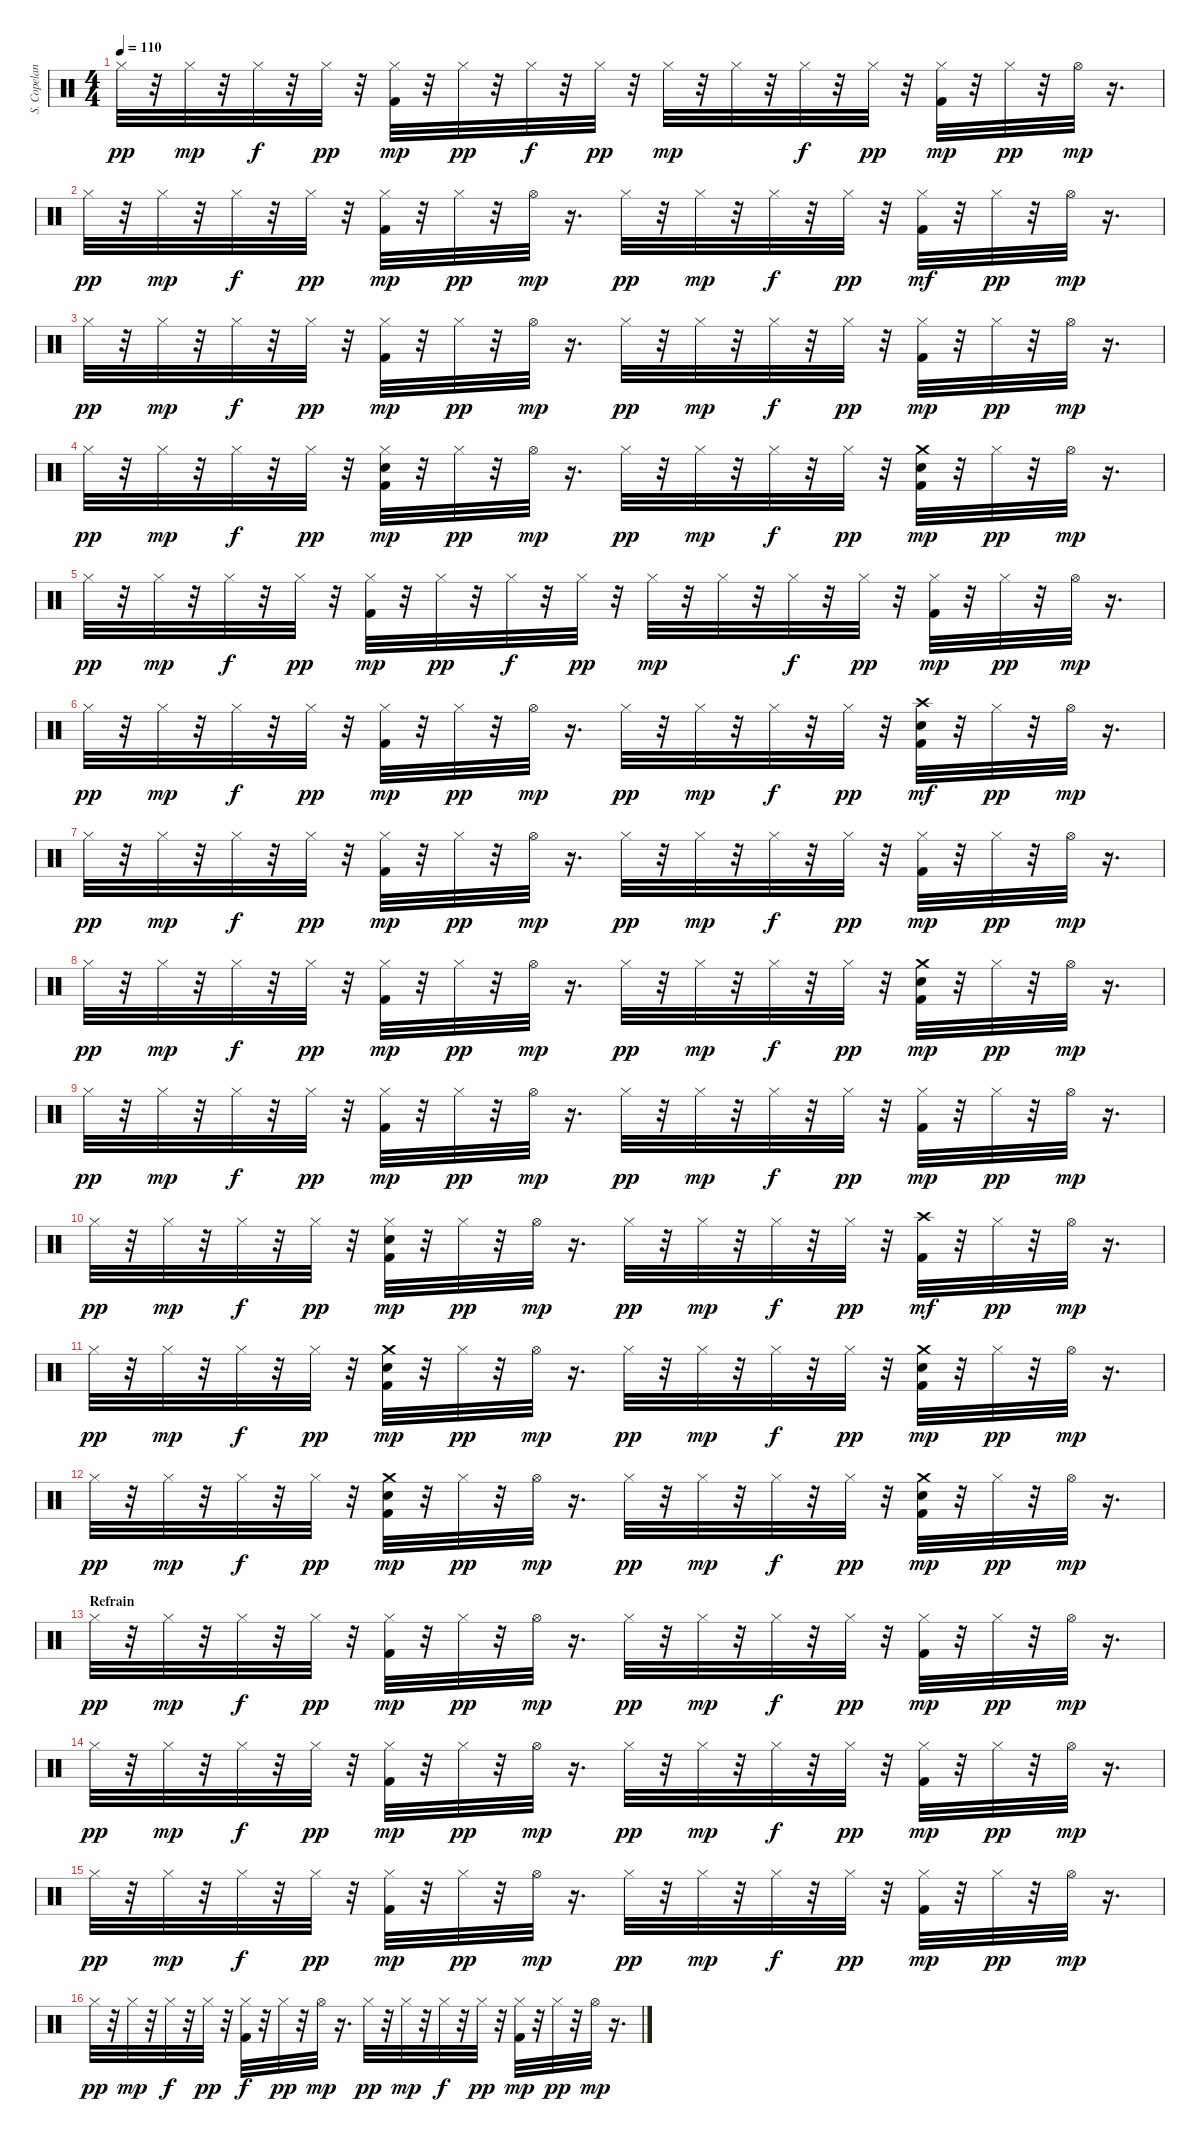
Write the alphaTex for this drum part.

\track ("S. Copeland" "S. Copelan") {instrument percussion}
\staff {score}
\articulation defaults
\ts (4 4)
\tempo 110
\clef neutral
\ks c "Hi-Hat (closed)".32{dy pp}
r.32 "Hi-Hat (closed)".32{dy mp} r.32 "Hi-Hat (closed)".32{dy f} r.32 "Hi-Hat (closed)".32{dy pp} r.32 ("Kick (hit) 2" "Hi-Hat (closed)").32{dy mp} r.32 "Hi-Hat (closed)".32{dy pp} r.32 "Hi-Hat (closed)".32{dy f} r.32 "Hi-Hat (closed)".32{dy pp} r.32 "Hi-Hat (closed)".32{dy mp} r.32 "Hi-Hat (closed)".32 r.32 "Hi-Hat (closed)".32{dy f} r.32 "Hi-Hat (closed)".32{dy pp} r.32 ("Kick (hit) 2" "Hi-Hat (closed)").32{dy mp} r.32 "Hi-Hat (closed)".32{dy pp} r.32 "Hi-Hat (open)".32{dy mp} r.16{d} |
"Hi-Hat (closed)".32{dy pp} r.32 "Hi-Hat (closed)".32{dy mp} r.32 "Hi-Hat (closed)".32{dy f} r.32 "Hi-Hat (closed)".32{dy pp} r.32 ("Kick (hit) 2" "Hi-Hat (closed)").32{dy mp} r.32 "Hi-Hat (closed)".32{dy pp} r.32 "Hi-Hat (open)".32{dy mp} r.16{d} "Hi-Hat (closed)".32{dy pp} r.32 "Hi-Hat (closed)".32{dy mp} r.32 "Hi-Hat (closed)".32{dy f} r.32 "Hi-Hat (closed)".32{dy pp} r.32 ("Kick (hit) 2" "Hi-Hat (closed)").32{dy mf} r.32 "Hi-Hat (closed)".32{dy pp} r.32 "Hi-Hat (open)".32{dy mp} r.16{d} |
"Hi-Hat (closed)".32{dy pp} r.32 "Hi-Hat (closed)".32{dy mp} r.32 "Hi-Hat (closed)".32{dy f} r.32 "Hi-Hat (closed)".32{dy pp} r.32 ("Kick (hit) 2" "Hi-Hat (closed)").32{dy mp} r.32 "Hi-Hat (closed)".32{dy pp} r.32 "Hi-Hat (open)".32{dy mp} r.16{d} "Hi-Hat (closed)".32{dy pp} r.32 "Hi-Hat (closed)".32{dy mp} r.32 "Hi-Hat (closed)".32{dy f} r.32 "Hi-Hat (closed)".32{dy pp} r.32 ("Kick (hit) 2" "Hi-Hat (closed)").32{dy mp} r.32 "Hi-Hat (closed)".32{dy pp} r.32 "Hi-Hat (open)".32{dy mp} r.16{d} |
"Hi-Hat (closed)".32{dy pp} r.32 "Hi-Hat (closed)".32{dy mp} r.32 "Hi-Hat (closed)".32{dy f} r.32 "Hi-Hat (closed)".32{dy pp} r.32 ("Kick (hit) 2" "Electric Snare (hit)" "Hi-Hat (closed)").32{dy mp} r.32 "Hi-Hat (closed)".32{dy pp} r.32 "Hi-Hat (open)".32{dy mp} r.16{d} "Hi-Hat (closed)".32{dy pp} r.32 "Hi-Hat (closed)".32{dy mp} r.32 "Hi-Hat (closed)".32{dy f} r.32 "Hi-Hat (closed)".32{dy pp} r.32 ("Kick (hit) 2" "Electric Snare (hit)" "Crash medium (hit)").32{dy mp} r.32 "Hi-Hat (closed)".32{dy pp} r.32 "Hi-Hat (open)".32{dy mp} r.16{d} |
"Hi-Hat (closed)".32{dy pp} r.32 "Hi-Hat (closed)".32{dy mp} r.32 "Hi-Hat (closed)".32{dy f} r.32 "Hi-Hat (closed)".32{dy pp} r.32 ("Kick (hit) 2" "Hi-Hat (closed)").32{dy mp} r.32 "Hi-Hat (closed)".32{dy pp} r.32 "Hi-Hat (closed)".32{dy f} r.32 "Hi-Hat (closed)".32{dy pp} r.32 "Hi-Hat (closed)".32{dy mp} r.32 "Hi-Hat (closed)".32 r.32 "Hi-Hat (closed)".32{dy f} r.32 "Hi-Hat (closed)".32{dy pp} r.32 ("Kick (hit) 2" "Hi-Hat (closed)").32{dy mp} r.32 "Hi-Hat (closed)".32{dy pp} r.32 "Hi-Hat (open)".32{dy mp} r.16{d} |
"Hi-Hat (closed)".32{dy pp} r.32 "Hi-Hat (closed)".32{dy mp} r.32 "Hi-Hat (closed)".32{dy f} r.32 "Hi-Hat (closed)".32{dy pp} r.32 ("Kick (hit) 2" "Hi-Hat (closed)").32{dy mp} r.32 "Hi-Hat (closed)".32{dy pp} r.32 "Hi-Hat (open)".32{dy mp} r.16{d} "Hi-Hat (closed)".32{dy pp} r.32 "Hi-Hat (closed)".32{dy mp} r.32 "Hi-Hat (closed)".32{dy f} r.32 "Hi-Hat (closed)".32{dy pp} r.32 ("Kick (hit) 2" "Electric Snare (hit)" "Crash high (hit)").32{dy mf} r.32 "Hi-Hat (closed)".32{dy pp} r.32 "Hi-Hat (open)".32{dy mp} r.16{d} |
"Hi-Hat (closed)".32{dy pp} r.32 "Hi-Hat (closed)".32{dy mp} r.32 "Hi-Hat (closed)".32{dy f} r.32 "Hi-Hat (closed)".32{dy pp} r.32 ("Kick (hit) 2" "Hi-Hat (closed)").32{dy mp} r.32 "Hi-Hat (closed)".32{dy pp} r.32 "Hi-Hat (open)".32{dy mp} r.16{d} "Hi-Hat (closed)".32{dy pp} r.32 "Hi-Hat (closed)".32{dy mp} r.32 "Hi-Hat (closed)".32{dy f} r.32 "Hi-Hat (closed)".32{dy pp} r.32 ("Kick (hit) 2" "Hi-Hat (closed)").32{dy mp} r.32 "Hi-Hat (closed)".32{dy pp} r.32 "Hi-Hat (open)".32{dy mp} r.16{d} |
"Hi-Hat (closed)".32{dy pp} r.32 "Hi-Hat (closed)".32{dy mp} r.32 "Hi-Hat (closed)".32{dy f} r.32 "Hi-Hat (closed)".32{dy pp} r.32 ("Kick (hit) 2" "Hi-Hat (closed)").32{dy mp} r.32 "Hi-Hat (closed)".32{dy pp} r.32 "Hi-Hat (open)".32{dy mp} r.16{d} "Hi-Hat (closed)".32{dy pp} r.32 "Hi-Hat (closed)".32{dy mp} r.32 "Hi-Hat (closed)".32{dy f} r.32 "Hi-Hat (closed)".32{dy pp} r.32 ("Kick (hit) 2" "Electric Snare (hit)" "Crash medium (hit)").32{dy mp} r.32 "Hi-Hat (closed)".32{dy pp} r.32 "Hi-Hat (open)".32{dy mp} r.16{d} |
"Hi-Hat (closed)".32{dy pp} r.32 "Hi-Hat (closed)".32{dy mp} r.32 "Hi-Hat (closed)".32{dy f} r.32 "Hi-Hat (closed)".32{dy pp} r.32 ("Kick (hit) 2" "Hi-Hat (closed)").32{dy mp} r.32 "Hi-Hat (closed)".32{dy pp} r.32 "Hi-Hat (open)".32{dy mp} r.16{d} "Hi-Hat (closed)".32{dy pp} r.32 "Hi-Hat (closed)".32{dy mp} r.32 "Hi-Hat (closed)".32{dy f} r.32 "Hi-Hat (closed)".32{dy pp} r.32 ("Kick (hit) 2" "Hi-Hat (closed)").32{dy mp} r.32 "Hi-Hat (closed)".32{dy pp} r.32 "Hi-Hat (open)".32{dy mp} r.16{d} |
"Hi-Hat (closed)".32{dy pp} r.32 "Hi-Hat (closed)".32{dy mp} r.32 "Hi-Hat (closed)".32{dy f} r.32 "Hi-Hat (closed)".32{dy pp} r.32 ("Kick (hit) 2" "Electric Snare (hit)" "Hi-Hat (closed)").32{dy mp} r.32 "Hi-Hat (closed)".32{dy pp} r.32 "Hi-Hat (open)".32{dy mp} r.16{d} "Hi-Hat (closed)".32{dy pp} r.32 "Hi-Hat (closed)".32{dy mp} r.32 "Hi-Hat (closed)".32{dy f} r.32 "Hi-Hat (closed)".32{dy pp} r.32 ("Kick (hit) 2" "Crash high (hit)").32{dy mf} r.32 "Hi-Hat (closed)".32{dy pp} r.32 "Hi-Hat (open)".32{dy mp} r.16{d} |
"Hi-Hat (closed)".32{dy pp} r.32 "Hi-Hat (closed)".32{dy mp} r.32 "Hi-Hat (closed)".32{dy f} r.32 "Hi-Hat (closed)".32{dy pp} r.32 ("Kick (hit) 2" "Electric Snare (hit)" "Crash medium (hit)").32{dy mp} r.32 "Hi-Hat (closed)".32{dy pp} r.32 "Hi-Hat (open)".32{dy mp} r.16{d} "Hi-Hat (closed)".32{dy pp} r.32 "Hi-Hat (closed)".32{dy mp} r.32 "Hi-Hat (closed)".32{dy f} r.32 "Hi-Hat (closed)".32{dy pp} r.32 ("Kick (hit) 2" "Electric Snare (hit)" "Crash medium (hit)").32{dy mp} r.32 "Hi-Hat (closed)".32{dy pp} r.32 "Hi-Hat (open)".32{dy mp} r.16{d} |
"Hi-Hat (closed)".32{dy pp} r.32 "Hi-Hat (closed)".32{dy mp} r.32 "Hi-Hat (closed)".32{dy f} r.32 "Hi-Hat (closed)".32{dy pp} r.32 ("Kick (hit) 2" "Electric Snare (hit)" "Crash medium (hit)").32{dy mp} r.32 "Hi-Hat (closed)".32{dy pp} r.32 "Hi-Hat (open)".32{dy mp} r.16{d} "Hi-Hat (closed)".32{dy pp} r.32 "Hi-Hat (closed)".32{dy mp} r.32 "Hi-Hat (closed)".32{dy f} r.32 "Hi-Hat (closed)".32{dy pp} r.32 ("Kick (hit) 2" "Electric Snare (hit)" "Crash medium (hit)").32{dy mp} r.32 "Hi-Hat (closed)".32{dy pp} r.32 "Hi-Hat (open)".32{dy mp} r.16{d} |
\section ("" "Refrain")
"Hi-Hat (closed)".32{dy pp} r.32 "Hi-Hat (closed)".32{dy mp} r.32 "Hi-Hat (closed)".32{dy f} r.32 "Hi-Hat (closed)".32{dy pp} r.32 ("Kick (hit) 2" "Hi-Hat (closed)").32{dy mp} r.32 "Hi-Hat (closed)".32{dy pp} r.32 "Hi-Hat (open)".32{dy mp} r.16{d} "Hi-Hat (closed)".32{dy pp} r.32 "Hi-Hat (closed)".32{dy mp} r.32 "Hi-Hat (closed)".32{dy f} r.32 "Hi-Hat (closed)".32{dy pp} r.32 ("Kick (hit) 2" "Hi-Hat (closed)").32{dy mp} r.32 "Hi-Hat (closed)".32{dy pp} r.32 "Hi-Hat (open)".32{dy mp} r.16{d} |
"Hi-Hat (closed)".32{dy pp} r.32 "Hi-Hat (closed)".32{dy mp} r.32 "Hi-Hat (closed)".32{dy f} r.32 "Hi-Hat (closed)".32{dy pp} r.32 ("Kick (hit) 2" "Hi-Hat (closed)").32{dy mp} r.32 "Hi-Hat (closed)".32{dy pp} r.32 "Hi-Hat (open)".32{dy mp} r.16{d} "Hi-Hat (closed)".32{dy pp} r.32 "Hi-Hat (closed)".32{dy mp} r.32 "Hi-Hat (closed)".32{dy f} r.32 "Hi-Hat (closed)".32{dy pp} r.32 ("Kick (hit) 2" "Hi-Hat (closed)").32{dy mp} r.32 "Hi-Hat (closed)".32{dy pp} r.32 "Hi-Hat (open)".32{dy mp} r.16{d} |
"Hi-Hat (closed)".32{dy pp} r.32 "Hi-Hat (closed)".32{dy mp} r.32 "Hi-Hat (closed)".32{dy f} r.32 "Hi-Hat (closed)".32{dy pp} r.32 ("Kick (hit) 2" "Hi-Hat (closed)").32{dy mp} r.32 "Hi-Hat (closed)".32{dy pp} r.32 "Hi-Hat (open)".32{dy mp} r.16{d} "Hi-Hat (closed)".32{dy pp} r.32 "Hi-Hat (closed)".32{dy mp} r.32 "Hi-Hat (closed)".32{dy f} r.32 "Hi-Hat (closed)".32{dy pp} r.32 ("Kick (hit) 2" "Hi-Hat (closed)").32{dy mp} r.32 "Hi-Hat (closed)".32{dy pp} r.32 "Hi-Hat (open)".32{dy mp} r.16{d} |
"Hi-Hat (closed)".32{dy pp} r.32 "Hi-Hat (closed)".32{dy mp} r.32 "Hi-Hat (closed)".32{dy f} r.32 "Hi-Hat (closed)".32{dy pp} r.32 ("Kick (hit) 2" "Hi-Hat (closed)").32{dy f} r.32 "Hi-Hat (closed)".32{dy pp} r.32 "Hi-Hat (open)".32{dy mp} r.16{d} "Hi-Hat (closed)".32{dy pp} r.32 "Hi-Hat (closed)".32{dy mp} r.32 "Hi-Hat (closed)".32{dy f} r.32 "Hi-Hat (closed)".32{dy pp} r.32 ("Kick (hit) 2" "Hi-Hat (closed)").32{dy mp} r.32 "Hi-Hat (closed)".32{dy pp} r.32 "Hi-Hat (open)".32{dy mp} r.16{d}
